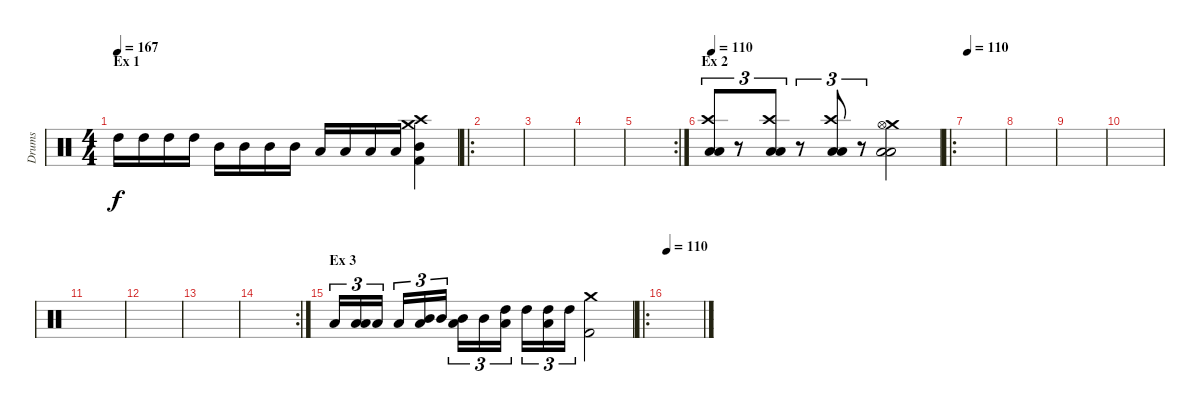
\track ("Drums" "Drums") {instrument percussion}
\staff {score}
\articulation defaults
\ts (4 4)
\section ("" "Ex 1")
\tempo 167
\clef neutral
\ks c "High Tom (hit)".16{dy f} "High Tom (hit)".16 "High Tom (hit)".16 "High Tom (hit)".16 "Mid Tom (hit)".16 "Mid Tom (hit)".16 "Mid Tom (hit)".16 "Mid Tom (hit)".16 "Low Tom (hit)".16 "Low Tom (hit)".16 "Low Tom (hit)".16 "Low Tom (hit)".16
("Kick (hit) 2" "Mid Tom (hit)" "Crash high (hit)" "Crash medium (hit)").4 |
\ro
|
|
|
\rc 2
|
\section ("" "Ex 2")
\tempo 110
("Crash high (hit)" "Low Floor Tom (hit)" "Low Tom (hit)").8{tu (3 2)} r.8{tu (3 2)} ("Crash high (hit)" "Low Floor Tom (hit)" "Low Tom (hit)").8{tu (3 2)} r.8{tu (3 2)} ("Crash high (hit)" "Low Floor Tom (hit)" "Low Tom (hit)").8{tu (3 2)} r.8{tu (3 2)} ("Crash medium (hit)" "Low Floor Tom (hit)" "Low Floor Tom (hit)" "Hi-Hat (open)").2 |
\ro
\tempo 110
|
|
|
|
|
|
|
\rc 2
|
\section ("" "Ex 3")
"Low Tom (hit)".16{tu (3 2)} ("Low Floor Tom (hit)" "Low Tom (hit)").16{tu (3 2)} "Low Tom (hit)".16{tu (3 2)} "Low Tom (hit)".16{tu (3 2)} ("Low Floor Tom (hit)" "Mid Tom (hit)").16{tu (3 2)} "Mid Tom (hit)".16{tu (3 2)} ("Low Floor Tom (hit)" "Mid Tom (hit)").16{tu (3 2)} "Mid Tom (hit)".16{tu (3 2)} ("Low Floor Tom (hit)" "High Tom (hit)").16{tu (3 2)} "High Tom (hit)".16{tu (3 2)} ("Low Floor Tom (hit)" "High Tom (hit)").16{tu (3 2)} "High Tom (hit)".16{tu (3 2)} ("Crash medium (hit)" "Kick (hit) 2").2 |
\ro
\tempo 110
